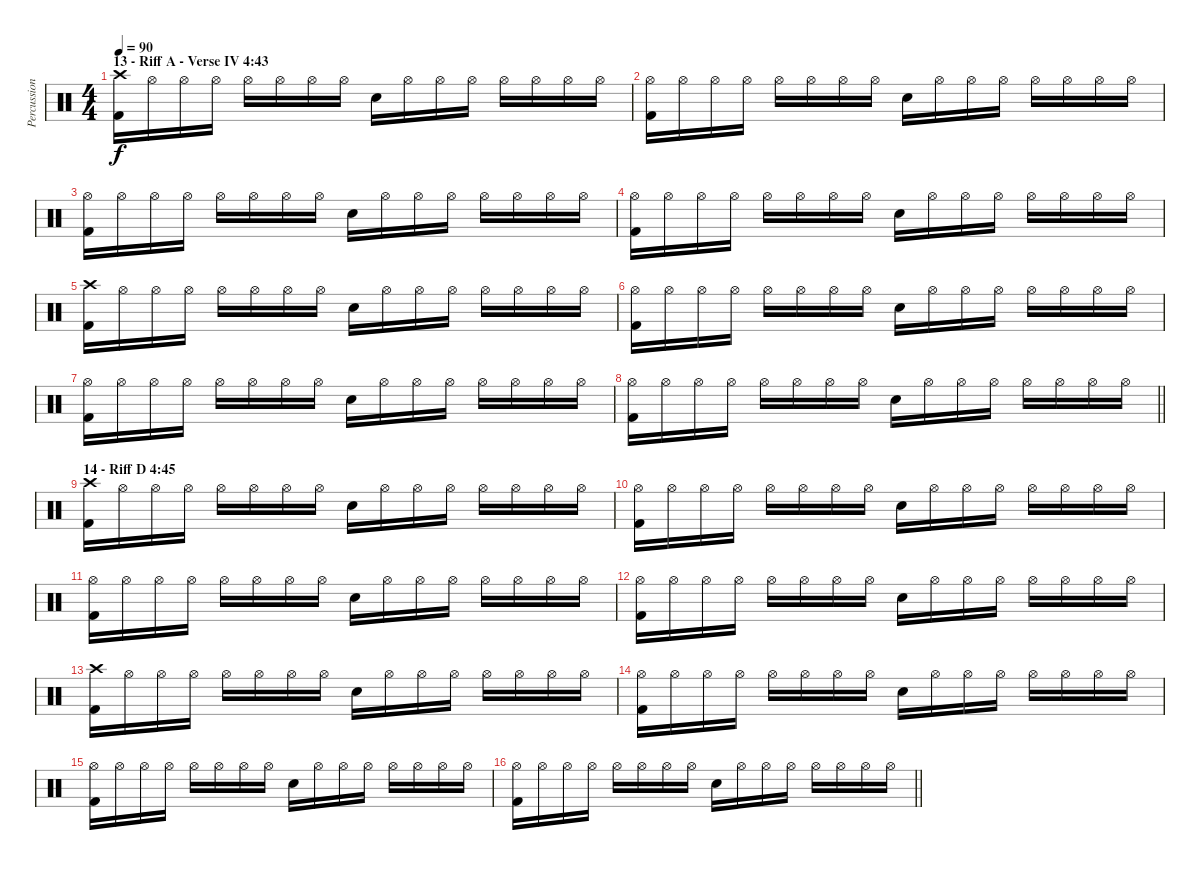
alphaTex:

\track ("Percussion" "Percussion") {instrument percussion}
\staff {score}
\articulation defaults
\ts (4 4)
\section ("" "13 - Riff A - Verse IV 4:43")
\tempo 90
\clef neutral
\ks c
("Crash high (hit)" "Kick (hit) 2").16{dy f} "Hi-Hat (open)".16 "Hi-Hat (open)".16 "Hi-Hat (open)".16 "Hi-Hat (open)".16 "Hi-Hat (open)".16 "Hi-Hat (open)".16 "Hi-Hat (open)".16 "Snare (hit) 2".16 "Hi-Hat (open)".16 "Hi-Hat (open)".16 "Hi-Hat (open)".16 "Hi-Hat (open)".16 "Hi-Hat (open)".16 "Hi-Hat (open)".16 "Hi-Hat (open)".16 |
("Hi-Hat (open)" "Kick (hit) 2").16 "Hi-Hat (open)".16 "Hi-Hat (open)".16 "Hi-Hat (open)".16 "Hi-Hat (open)".16 "Hi-Hat (open)".16 "Hi-Hat (open)".16 "Hi-Hat (open)".16 "Snare (hit) 2".16 "Hi-Hat (open)".16 "Hi-Hat (open)".16 "Hi-Hat (open)".16 "Hi-Hat (open)".16 "Hi-Hat (open)".16 "Hi-Hat (open)".16 "Hi-Hat (open)".16 |
("Hi-Hat (open)" "Kick (hit) 2").16 "Hi-Hat (open)".16 "Hi-Hat (open)".16 "Hi-Hat (open)".16 "Hi-Hat (open)".16 "Hi-Hat (open)".16 "Hi-Hat (open)".16 "Hi-Hat (open)".16 "Snare (hit) 2".16 "Hi-Hat (open)".16 "Hi-Hat (open)".16 "Hi-Hat (open)".16 "Hi-Hat (open)".16 "Hi-Hat (open)".16 "Hi-Hat (open)".16 "Hi-Hat (open)".16 |
("Hi-Hat (open)" "Kick (hit) 2").16 "Hi-Hat (open)".16 "Hi-Hat (open)".16 "Hi-Hat (open)".16 "Hi-Hat (open)".16 "Hi-Hat (open)".16 "Hi-Hat (open)".16 "Hi-Hat (open)".16 "Snare (hit) 2".16 "Hi-Hat (open)".16 "Hi-Hat (open)".16 "Hi-Hat (open)".16 "Hi-Hat (open)".16 "Hi-Hat (open)".16 "Hi-Hat (open)".16 "Hi-Hat (open)".16 |
("Crash high (hit)" "Kick (hit) 2").16 "Hi-Hat (open)".16 "Hi-Hat (open)".16 "Hi-Hat (open)".16 "Hi-Hat (open)".16 "Hi-Hat (open)".16 "Hi-Hat (open)".16 "Hi-Hat (open)".16 "Snare (hit) 2".16 "Hi-Hat (open)".16 "Hi-Hat (open)".16 "Hi-Hat (open)".16 "Hi-Hat (open)".16 "Hi-Hat (open)".16 "Hi-Hat (open)".16 "Hi-Hat (open)".16 |
("Hi-Hat (open)" "Kick (hit) 2").16 "Hi-Hat (open)".16 "Hi-Hat (open)".16 "Hi-Hat (open)".16 "Hi-Hat (open)".16 "Hi-Hat (open)".16 "Hi-Hat (open)".16 "Hi-Hat (open)".16 "Snare (hit) 2".16 "Hi-Hat (open)".16 "Hi-Hat (open)".16 "Hi-Hat (open)".16 "Hi-Hat (open)".16 "Hi-Hat (open)".16 "Hi-Hat (open)".16 "Hi-Hat (open)".16 |
("Hi-Hat (open)" "Kick (hit) 2").16 "Hi-Hat (open)".16 "Hi-Hat (open)".16 "Hi-Hat (open)".16 "Hi-Hat (open)".16 "Hi-Hat (open)".16 "Hi-Hat (open)".16 "Hi-Hat (open)".16 "Snare (hit) 2".16 "Hi-Hat (open)".16 "Hi-Hat (open)".16 "Hi-Hat (open)".16 "Hi-Hat (open)".16 "Hi-Hat (open)".16 "Hi-Hat (open)".16 "Hi-Hat (open)".16 |
\barLineRight lightlight
("Hi-Hat (open)" "Kick (hit) 2").16 "Hi-Hat (open)".16 "Hi-Hat (open)".16 "Hi-Hat (open)".16 "Hi-Hat (open)".16 "Hi-Hat (open)".16 "Hi-Hat (open)".16 "Hi-Hat (open)".16 "Snare (hit) 2".16 "Hi-Hat (open)".16 "Hi-Hat (open)".16 "Hi-Hat (open)".16 "Hi-Hat (open)".16 "Hi-Hat (open)".16 "Hi-Hat (open)".16 "Hi-Hat (open)".16 |
\section ("" "14 - Riff D 4:45")
("Crash high (hit)" "Kick (hit) 2").16 "Hi-Hat (open)".16 "Hi-Hat (open)".16 "Hi-Hat (open)".16 "Hi-Hat (open)".16 "Hi-Hat (open)".16 "Hi-Hat (open)".16 "Hi-Hat (open)".16 "Snare (hit) 2".16 "Hi-Hat (open)".16 "Hi-Hat (open)".16 "Hi-Hat (open)".16 "Hi-Hat (open)".16 "Hi-Hat (open)".16 "Hi-Hat (open)".16 "Hi-Hat (open)".16 |
("Hi-Hat (open)" "Kick (hit) 2").16 "Hi-Hat (open)".16 "Hi-Hat (open)".16 "Hi-Hat (open)".16 "Hi-Hat (open)".16 "Hi-Hat (open)".16 "Hi-Hat (open)".16 "Hi-Hat (open)".16 "Snare (hit) 2".16 "Hi-Hat (open)".16 "Hi-Hat (open)".16 "Hi-Hat (open)".16 "Hi-Hat (open)".16 "Hi-Hat (open)".16 "Hi-Hat (open)".16 "Hi-Hat (open)".16 |
("Hi-Hat (open)" "Kick (hit) 2").16 "Hi-Hat (open)".16 "Hi-Hat (open)".16 "Hi-Hat (open)".16 "Hi-Hat (open)".16 "Hi-Hat (open)".16 "Hi-Hat (open)".16 "Hi-Hat (open)".16 "Snare (hit) 2".16 "Hi-Hat (open)".16 "Hi-Hat (open)".16 "Hi-Hat (open)".16 "Hi-Hat (open)".16 "Hi-Hat (open)".16 "Hi-Hat (open)".16 "Hi-Hat (open)".16 |
("Hi-Hat (open)" "Kick (hit) 2").16 "Hi-Hat (open)".16 "Hi-Hat (open)".16 "Hi-Hat (open)".16 "Hi-Hat (open)".16 "Hi-Hat (open)".16 "Hi-Hat (open)".16 "Hi-Hat (open)".16 "Snare (hit) 2".16 "Hi-Hat (open)".16 "Hi-Hat (open)".16 "Hi-Hat (open)".16 "Hi-Hat (open)".16 "Hi-Hat (open)".16 "Hi-Hat (open)".16 "Hi-Hat (open)".16 |
("Crash high (hit)" "Kick (hit) 2").16 "Hi-Hat (open)".16 "Hi-Hat (open)".16 "Hi-Hat (open)".16 "Hi-Hat (open)".16 "Hi-Hat (open)".16 "Hi-Hat (open)".16 "Hi-Hat (open)".16 "Snare (hit) 2".16 "Hi-Hat (open)".16 "Hi-Hat (open)".16 "Hi-Hat (open)".16 "Hi-Hat (open)".16 "Hi-Hat (open)".16 "Hi-Hat (open)".16 "Hi-Hat (open)".16 |
("Hi-Hat (open)" "Kick (hit) 2").16 "Hi-Hat (open)".16 "Hi-Hat (open)".16 "Hi-Hat (open)".16 "Hi-Hat (open)".16 "Hi-Hat (open)".16 "Hi-Hat (open)".16 "Hi-Hat (open)".16 "Snare (hit) 2".16 "Hi-Hat (open)".16 "Hi-Hat (open)".16 "Hi-Hat (open)".16 "Hi-Hat (open)".16 "Hi-Hat (open)".16 "Hi-Hat (open)".16 "Hi-Hat (open)".16 |
("Hi-Hat (open)" "Kick (hit) 2").16 "Hi-Hat (open)".16 "Hi-Hat (open)".16 "Hi-Hat (open)".16 "Hi-Hat (open)".16 "Hi-Hat (open)".16 "Hi-Hat (open)".16 "Hi-Hat (open)".16 "Snare (hit) 2".16 "Hi-Hat (open)".16 "Hi-Hat (open)".16 "Hi-Hat (open)".16 "Hi-Hat (open)".16 "Hi-Hat (open)".16 "Hi-Hat (open)".16 "Hi-Hat (open)".16 |
\barLineRight lightlight
("Hi-Hat (open)" "Kick (hit) 2").16 "Hi-Hat (open)".16 "Hi-Hat (open)".16 "Hi-Hat (open)".16 "Hi-Hat (open)".16 "Hi-Hat (open)".16 "Hi-Hat (open)".16 "Hi-Hat (open)".16 "Snare (hit) 2".16 "Hi-Hat (open)".16 "Hi-Hat (open)".16 "Hi-Hat (open)".16 "Hi-Hat (open)".16 "Hi-Hat (open)".16 "Hi-Hat (open)".16 "Hi-Hat (open)".16
